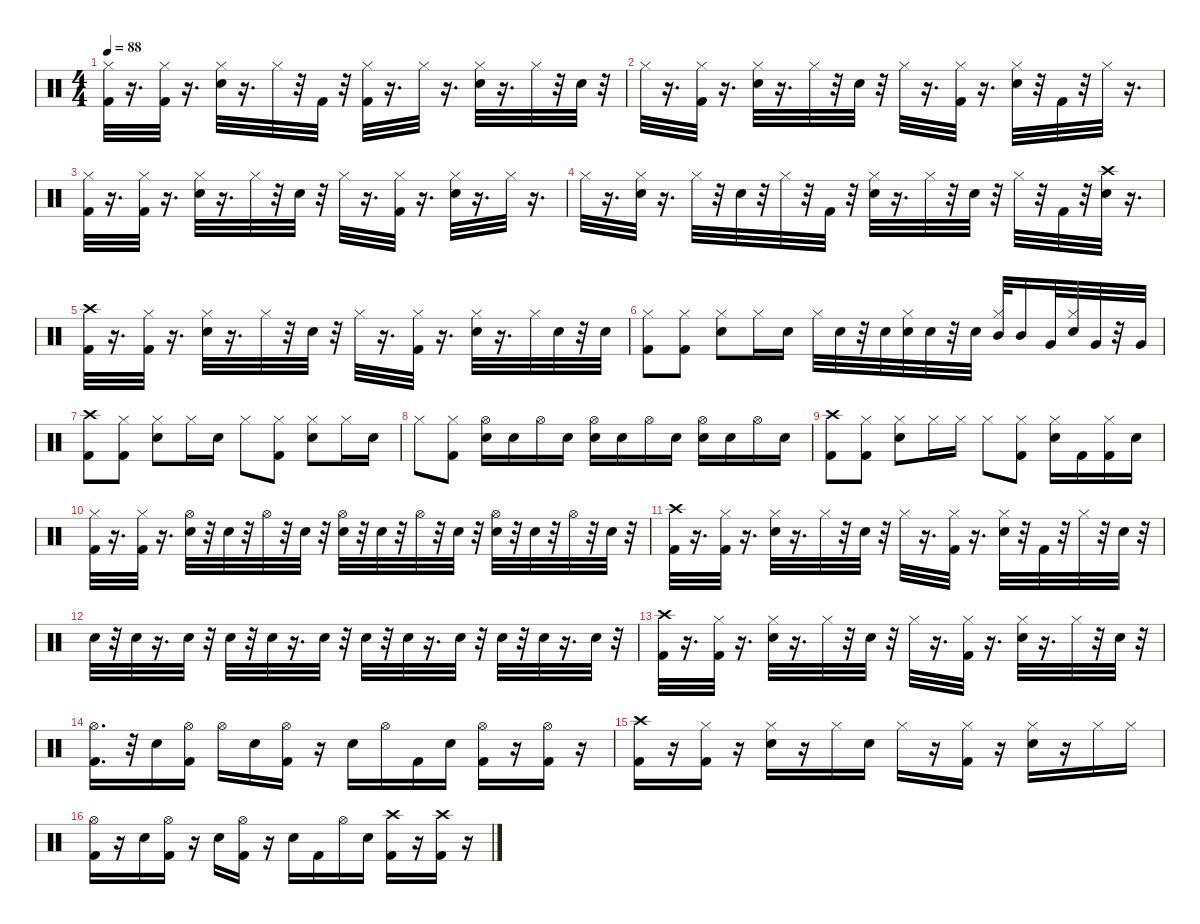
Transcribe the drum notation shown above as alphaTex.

\defaultSystemsLayout 4
\hideDynamics
\bracketExtendMode nobrackets
\singleTrackTrackNamePolicy hidden
\multiTrackTrackNamePolicy hidden
\firstSystemTrackNameMode fullname
\firstSystemTrackNameOrientation horizontal
\otherSystemsTrackNameOrientation horizontal
\track ("Bonzo" "drm.") {instrument percussion}
\staff {score}
\articulation defaults
\ts (4 4)
\tempo 88
\clef neutral
\ks c
("Kick (hit) 2" "Hi-Hat (closed)").32{dy fff beam Down} r.16{d beam Down} ("Kick (hit) 2" "Hi-Hat (closed)").32{beam Down} r.16{d beam Down} ("Snare (hit) 2" "Hi-Hat (closed)").32{beam Down} r.16{d beam Down} "Hi-Hat (closed)".32{dy ff beam Down} r.32{beam Down} "Kick (hit) 2".32{dy fff beam Down} r.32{beam Down} ("Kick (hit) 2" "Hi-Hat (closed)").32{beam Down} r.16{d beam Down} "Hi-Hat (closed)".32{dy ff beam Down} r.16{d beam Down} ("Snare (hit) 2" "Hi-Hat (closed)").32{dy fff beam Down} r.16{d beam Down} "Hi-Hat (closed)".32{dy ff beam Down} r.32{beam Down} "Snare (hit) 2".32{dy fff beam Down} r.32{beam Down} |
"Hi-Hat (closed)".32{dy ff beam Down} r.16{d beam Down} ("Kick (hit) 2" "Hi-Hat (closed)").32{dy fff beam Down} r.16{d beam Down} ("Snare (hit) 2" "Hi-Hat (closed)").32{beam Down} r.16{d beam Down} "Hi-Hat (closed)".32{dy ff beam Down} r.32{beam Down} "Snare (hit) 2".32{dy fff beam Down} r.32{beam Down} "Hi-Hat (closed)".32{dy ff beam Down} r.16{d beam Down} ("Kick (hit) 2" "Hi-Hat (closed)").32{dy fff beam Down} r.16{d beam Down} ("Snare (hit) 2" "Hi-Hat (closed)").32{beam Down} r.32{beam Down} "Kick (hit) 2".32{beam Down} r.32{beam Down} "Hi-Hat (closed)".32{dy ff beam Down} r.16{d beam Down} |
("Kick (hit) 2" "Hi-Hat (closed)").32{dy fff beam Down} r.16{d beam Down} ("Kick (hit) 2" "Hi-Hat (closed)").32{beam Down} r.16{d beam Down} ("Snare (hit) 2" "Hi-Hat (closed)").32{beam Down} r.16{d beam Down} "Hi-Hat (closed)".32{dy ff beam Down} r.32{beam Down} "Snare (hit) 2".32{dy fff beam Down} r.32{beam Down} "Hi-Hat (closed)".32{dy ff beam Down} r.16{d beam Down} ("Kick (hit) 2" "Hi-Hat (closed)").32{dy fff beam Down} r.16{d beam Down} ("Snare (hit) 2" "Hi-Hat (closed)").32{beam Down} r.16{d beam Down} "Hi-Hat (closed)".32{dy ff beam Down} r.16{d beam Down} |
"Hi-Hat (closed)".32{beam Down} r.16{d beam Down} ("Snare (hit) 2" "Hi-Hat (closed)").32{dy fff beam Down} r.16{d beam Down} "Hi-Hat (closed)".32{dy ff beam Down} r.32{beam Down} "Snare (hit) 2".32{dy fff beam Down} r.32{beam Down} "Hi-Hat (closed)".32{dy ff beam Down} r.32{beam Down} "Kick (hit) 2".32{dy fff beam Down} r.32{beam Down} ("Snare (hit) 2" "Hi-Hat (closed)").32{beam Down} r.16{d beam Down} "Hi-Hat (closed)".32{dy ff beam Down} r.32{beam Down} "Snare (hit) 2".32{dy fff beam Down} r.32{beam Down} "Hi-Hat (closed)".32{dy ff beam Down} r.32{beam Down} "Kick (hit) 2".32{dy fff beam Down} r.32{beam Down} ("Snare (hit) 2" "Crash high (hit)").32{beam Down} r.16{d beam Down} |
("Kick (hit) 2" "Crash high (hit)").32{beam Down} r.16{d beam Down} ("Kick (hit) 2" "Hi-Hat (closed)").32{beam Down} r.16{d beam Down} ("Snare (hit) 2" "Hi-Hat (closed)").32{beam Down} r.16{d beam Down} "Hi-Hat (closed)".32{dy ff beam Down} r.32{beam Down} "Snare (hit) 2".32{dy fff beam Down} r.32{beam Down} "Hi-Hat (closed)".32{dy ff beam Down} r.16{d beam Down} ("Kick (hit) 2" "Hi-Hat (closed)").32{dy fff beam Down} r.16{d beam Down} ("Snare (hit) 2" "Hi-Hat (closed)").32{beam Down} r.16{d beam Down} "Hi-Hat (closed)".32{dy ff beam Down} "Snare (hit) 2".32{dy fff beam Down} r.32{beam Down} "Snare (hit) 2".32{beam Down} |
("Kick (hit) 2" "Hi-Hat (closed)").8{beam Down} ("Kick (hit) 2" "Hi-Hat (closed)").8{beam Down} ("Snare (hit) 2" "Hi-Hat (closed)").8{beam Down} "Hi-Hat (closed)".16{dy ff beam Down} "Snare (hit) 2".16{dy fff beam Down} "Hi-Hat (closed)".32{dy ff beam Down} "Snare (hit) 2".32{dy fff beam Down} r.32{beam Down} "Snare (hit) 2".32{beam Down} ("Snare (hit) 2" "Hi-Hat (closed)").32{beam Down} "Snare (hit) 2".32{beam Down} r.32{beam Down} "Snare (hit) 2".32{beam Down} ("Hi-Hat (closed)" "Mid Tom (hit)").32{dy ff beam Up} "Mid Tom (hit)".16{beam Up} "Very Low Tom (hit)".32{beam Up} ("Snare (hit) 2" "Hi-Hat (closed)").32{dy fff beam Up} "Very Low Tom (hit)".32{dy ff beam Up} r.32{beam Up} "Very Low Tom (hit)".32{beam Up} |
("Kick (hit) 2" "Crash high (hit)").8{dy fff beam Down} ("Kick (hit) 2" "Hi-Hat (closed)").8{beam Down} ("Snare (hit) 2" "Hi-Hat (closed)").8{beam Down} "Hi-Hat (closed)".16{dy ff beam Down} "Snare (hit) 2".16{dy fff beam Down} "Hi-Hat (closed)".8{dy ff beam Down} ("Kick (hit) 2" "Hi-Hat (closed)").8{dy fff beam Down} ("Snare (hit) 2" "Hi-Hat (closed)").8{beam Down} "Hi-Hat (closed)".16{dy ff beam Down} "Snare (hit) 2".16{dy fff beam Down} |
"Hi-Hat (closed)".8{dy ff beam Down} ("Kick (hit) 2" "Hi-Hat (closed)").8{dy fff beam Down} ("Snare (hit) 2" "Hi-Hat (open)").16{beam Down} "Snare (hit) 2".16{beam Down} "Hi-Hat (open)".16{dy ff beam Down} "Snare (hit) 2".16{dy fff beam Down} ("Snare (hit) 2" "Hi-Hat (open)").16{beam Down} "Snare (hit) 2".16{beam Down} "Hi-Hat (open)".16{dy ff beam Down} "Snare (hit) 2".16{dy fff beam Down} ("Snare (hit) 2" "Hi-Hat (open)").16{beam Down} "Snare (hit) 2".16{beam Down} "Hi-Hat (open)".16{dy ff beam Down} "Snare (hit) 2".16{dy fff beam Down} |
("Kick (hit) 2" "Crash high (hit)").8{beam Down} ("Kick (hit) 2" "Hi-Hat (closed)").8{beam Down} ("Snare (hit) 2" "Hi-Hat (closed)").8{beam Down} "Hi-Hat (closed)".16{dy ff beam Down} "Hi-Hat (closed)".16{beam Down} "Hi-Hat (closed)".8{beam Down} ("Kick (hit) 2" "Hi-Hat (closed)").8{dy fff beam Down} ("Snare (hit) 2" "Hi-Hat (closed)").16{beam Down} "Kick (hit) 2".16{beam Down} ("Kick (hit) 2" "Hi-Hat (closed)").16{beam Down} "Snare (hit) 2".16{beam Down} |
("Kick (hit) 2" "Hi-Hat (closed)").32{beam Down} r.16{d beam Down} ("Kick (hit) 2" "Hi-Hat (closed)").32{beam Down} r.16{d beam Down} ("Snare (hit) 2" "Hi-Hat (open)").32{beam Down} r.32{beam Down} "Snare (hit) 2".32{beam Down} r.32{beam Down} "Hi-Hat (open)".32{dy ff beam Down} r.32{beam Down} "Snare (hit) 2".32{dy fff beam Down} r.32{beam Down} ("Snare (hit) 2" "Hi-Hat (open)").32{beam Down} r.32{beam Down} "Snare (hit) 2".32{beam Down} r.32{beam Down} "Hi-Hat (open)".32{dy ff beam Down} r.32{beam Down} "Snare (hit) 2".32{dy fff beam Down} r.32{beam Down} ("Snare (hit) 2" "Hi-Hat (open)").32{beam Down} r.32{beam Down} "Snare (hit) 2".32{beam Down} r.32{beam Down} "Hi-Hat (open)".32{dy ff beam Down} r.32{beam Down} "Snare (hit) 2".32{dy fff beam Down} r.32{beam Down} |
("Kick (hit) 2" "Crash high (hit)").32{beam Down} r.16{d beam Down} ("Kick (hit) 2" "Hi-Hat (closed)").32{beam Down} r.16{d beam Down} ("Snare (hit) 2" "Hi-Hat (closed)").32{beam Down} r.16{d beam Down} "Hi-Hat (closed)".32{dy ff beam Down} r.32{beam Down} "Snare (hit) 2".32{dy fff beam Down} r.32{beam Down} "Hi-Hat (closed)".32{dy ff beam Down} r.16{d beam Down} ("Kick (hit) 2" "Hi-Hat (closed)").32{dy fff beam Down} r.16{d beam Down} ("Snare (hit) 2" "Hi-Hat (closed)").32{beam Down} r.32{beam Down} "Kick (hit) 2".32{beam Down} r.32{beam Down} "Hi-Hat (closed)".32{dy ff beam Down} r.32{beam Down} "Snare (hit) 2".32{dy fff beam Down} r.32{beam Down} |
"Snare (hit) 2".32{beam Down} r.32{beam Down} "Snare (hit) 2".32{beam Down} r.16{d beam Down} "Snare (hit) 2".32{beam Down} r.32{beam Down} "Snare (hit) 2".32{beam Down} r.32{beam Down} "Snare (hit) 2".32{beam Down} r.16{d beam Down} "Snare (hit) 2".32{beam Down} r.32{beam Down} "Snare (hit) 2".32{beam Down} r.32{beam Down} "Snare (hit) 2".32{beam Down} r.16{d beam Down} "Snare (hit) 2".32{beam Down} r.32{beam Down} "Snare (hit) 2".32{beam Down} r.32{beam Down} "Snare (hit) 2".32{beam Down} r.16{d beam Down} "Snare (hit) 2".32{beam Down} r.32{beam Down} |
("Kick (hit) 2" "Crash high (hit)").32{beam Down} r.16{d beam Down} ("Kick (hit) 2" "Hi-Hat (closed)").32{beam Down} r.16{d beam Down} ("Snare (hit) 2" "Hi-Hat (closed)").32{beam Down} r.16{d beam Down} "Hi-Hat (closed)".32{dy ff beam Down} r.32{beam Down} "Snare (hit) 2".32{dy fff beam Down} r.32{beam Down} "Hi-Hat (closed)".32{dy ff beam Down} r.16{d beam Down} ("Kick (hit) 2" "Hi-Hat (closed)").32{dy fff beam Down} r.16{d beam Down} ("Snare (hit) 2" "Hi-Hat (closed)").32{beam Down} r.16{d beam Down} "Hi-Hat (closed)".32{dy ff beam Down} r.32{beam Down} "Snare (hit) 2".32{dy fff beam Down} r.32{beam Down} |
("Kick (hit) 2" "Hi-Hat (open)").16{d beam Down} r.32{beam Down} "Snare (hit) 2".16{beam Down} ("Kick (hit) 2" "Hi-Hat (open)").16{beam Down} "Hi-Hat (open)".16{dy ff beam Down} "Snare (hit) 2".16{dy fff beam Down} ("Kick (hit) 2" "Hi-Hat (open)").16{beam Down} r.16{beam Down} "Snare (hit) 2".16{beam Down} "Hi-Hat (open)".16{dy ff beam Down} "Kick (hit) 2".16{dy fff beam Down} "Snare (hit) 2".16{beam Down} ("Kick (hit) 2" "Hi-Hat (open)").16{beam Down} r.16{beam Down} ("Kick (hit) 2" "Hi-Hat (open)").16{beam Down} r.16{beam Down} |
("Kick (hit) 2" "Crash high (hit)").16{beam Down} r.16{beam Down} ("Kick (hit) 2" "Hi-Hat (closed)").16{beam Down} r.16{beam Down} ("Snare (hit) 2" "Hi-Hat (closed)").16{beam Down} r.16{beam Down} "Hi-Hat (closed)".16{dy ff beam Down} "Snare (hit) 2".16{dy fff beam Down} "Hi-Hat (closed)".16{dy ff beam Down} r.16{beam Down} ("Kick (hit) 2" "Hi-Hat (closed)").16{dy fff beam Down} r.16{beam Down} ("Snare (hit) 2" "Hi-Hat (closed)").16{beam Down} r.16{beam Down} "Hi-Hat (closed)".16{dy ff beam Down} "Hi-Hat (closed)".16{beam Down} |
("Kick (hit) 2" "Hi-Hat (open)").16{dy fff beam Down} r.16{beam Down} "Snare (hit) 2".16{beam Down} ("Kick (hit) 2" "Hi-Hat (open)").16{beam Down} r.16{beam Down} "Snare (hit) 2".16{beam Down} ("Kick (hit) 2" "Hi-Hat (open)").16{beam Down} r.16{beam Down} "Snare (hit) 2".16{beam Down} "Kick (hit) 2".16{beam Down} "Hi-Hat (open)".16{dy ff beam Down} "Snare (hit) 2".16{dy fff beam Down} ("Kick (hit) 2" "Crash high (hit)").16{beam Down} r.16{beam Down} ("Kick (hit) 2" "Crash high (hit)").16{beam Down} r.16{beam Down}
